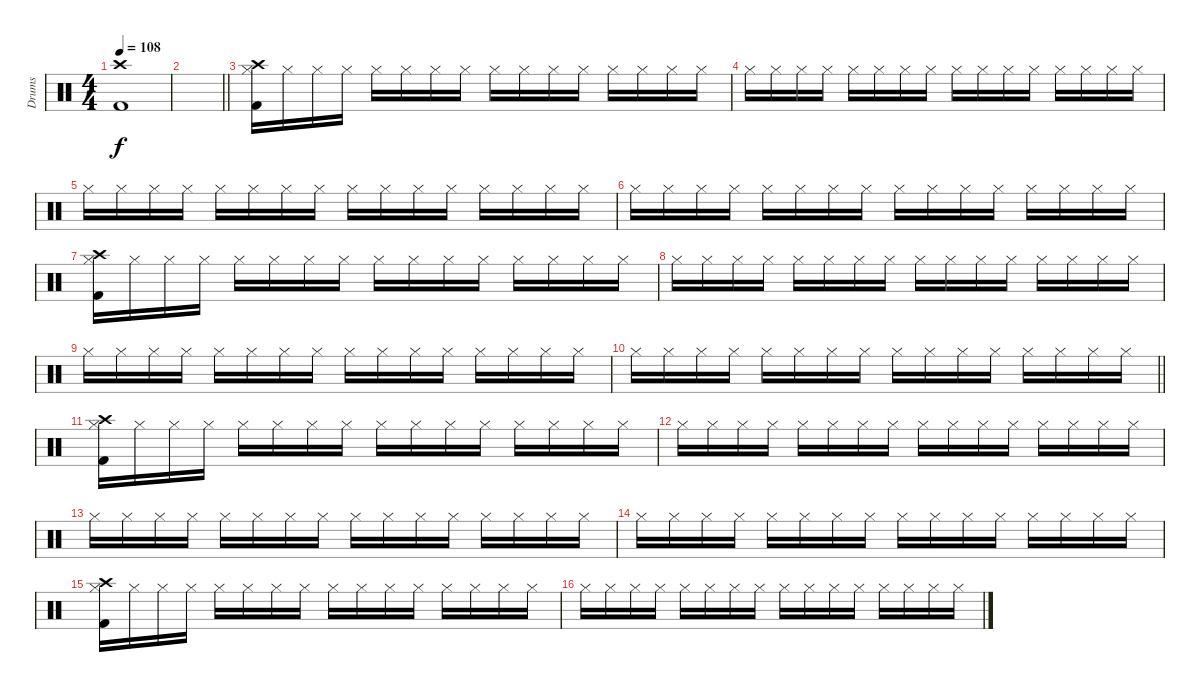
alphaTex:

\track ("Drums" "Drums") {instrument percussion}
\staff {score}
\articulation defaults
\ts (4 4)
\section ("" "")
\tempo 108
\clef neutral
\ks c
("Crash high (hit)" "Kick (hit) 2").1{dy f} |
\barLineRight lightlight
|
\section ("" "")
("Crash high (hit)" "Hi-Hat (closed)" "Kick (hit) 2").16 "Hi-Hat (closed)".16 "Hi-Hat (closed)".16 "Hi-Hat (closed)".16 "Hi-Hat (closed)".16 "Hi-Hat (closed)".16 "Hi-Hat (closed)".16 "Hi-Hat (closed)".16 "Hi-Hat (closed)".16 "Hi-Hat (closed)".16 "Hi-Hat (closed)".16 "Hi-Hat (closed)".16 "Hi-Hat (closed)".16 "Hi-Hat (closed)".16 "Hi-Hat (closed)".16 "Hi-Hat (closed)".16 |
"Hi-Hat (closed)".16 "Hi-Hat (closed)".16 "Hi-Hat (closed)".16 "Hi-Hat (closed)".16 "Hi-Hat (closed)".16 "Hi-Hat (closed)".16 "Hi-Hat (closed)".16 "Hi-Hat (closed)".16 "Hi-Hat (closed)".16 "Hi-Hat (closed)".16 "Hi-Hat (closed)".16 "Hi-Hat (closed)".16 "Hi-Hat (closed)".16 "Hi-Hat (closed)".16 "Hi-Hat (closed)".16 "Hi-Hat (closed)".16 |
"Hi-Hat (closed)".16 "Hi-Hat (closed)".16 "Hi-Hat (closed)".16 "Hi-Hat (closed)".16 "Hi-Hat (closed)".16 "Hi-Hat (closed)".16 "Hi-Hat (closed)".16 "Hi-Hat (closed)".16 "Hi-Hat (closed)".16 "Hi-Hat (closed)".16 "Hi-Hat (closed)".16 "Hi-Hat (closed)".16 "Hi-Hat (closed)".16 "Hi-Hat (closed)".16 "Hi-Hat (closed)".16 "Hi-Hat (closed)".16 |
"Hi-Hat (closed)".16 "Hi-Hat (closed)".16 "Hi-Hat (closed)".16 "Hi-Hat (closed)".16 "Hi-Hat (closed)".16 "Hi-Hat (closed)".16 "Hi-Hat (closed)".16 "Hi-Hat (closed)".16 "Hi-Hat (closed)".16 "Hi-Hat (closed)".16 "Hi-Hat (closed)".16 "Hi-Hat (closed)".16 "Hi-Hat (closed)".16 "Hi-Hat (closed)".16 "Hi-Hat (closed)".16 "Hi-Hat (closed)".16 |
("Crash high (hit)" "Hi-Hat (closed)" "Kick (hit) 2").16 "Hi-Hat (closed)".16 "Hi-Hat (closed)".16 "Hi-Hat (closed)".16 "Hi-Hat (closed)".16 "Hi-Hat (closed)".16 "Hi-Hat (closed)".16 "Hi-Hat (closed)".16 "Hi-Hat (closed)".16 "Hi-Hat (closed)".16 "Hi-Hat (closed)".16 "Hi-Hat (closed)".16 "Hi-Hat (closed)".16 "Hi-Hat (closed)".16 "Hi-Hat (closed)".16 "Hi-Hat (closed)".16 |
"Hi-Hat (closed)".16 "Hi-Hat (closed)".16 "Hi-Hat (closed)".16 "Hi-Hat (closed)".16 "Hi-Hat (closed)".16 "Hi-Hat (closed)".16 "Hi-Hat (closed)".16 "Hi-Hat (closed)".16 "Hi-Hat (closed)".16 "Hi-Hat (closed)".16 "Hi-Hat (closed)".16 "Hi-Hat (closed)".16 "Hi-Hat (closed)".16 "Hi-Hat (closed)".16 "Hi-Hat (closed)".16 "Hi-Hat (closed)".16 |
"Hi-Hat (closed)".16 "Hi-Hat (closed)".16 "Hi-Hat (closed)".16 "Hi-Hat (closed)".16 "Hi-Hat (closed)".16 "Hi-Hat (closed)".16 "Hi-Hat (closed)".16 "Hi-Hat (closed)".16 "Hi-Hat (closed)".16 "Hi-Hat (closed)".16 "Hi-Hat (closed)".16 "Hi-Hat (closed)".16 "Hi-Hat (closed)".16 "Hi-Hat (closed)".16 "Hi-Hat (closed)".16 "Hi-Hat (closed)".16 |
\barLineRight lightlight "Hi-Hat (closed)".16 "Hi-Hat (closed)".16 "Hi-Hat (closed)".16 "Hi-Hat (closed)".16 "Hi-Hat (closed)".16 "Hi-Hat (closed)".16 "Hi-Hat (closed)".16 "Hi-Hat (closed)".16 "Hi-Hat (closed)".16 "Hi-Hat (closed)".16 "Hi-Hat (closed)".16 "Hi-Hat (closed)".16 "Hi-Hat (closed)".16 "Hi-Hat (closed)".16 "Hi-Hat (closed)".16 "Hi-Hat (closed)".16
|
\section ("" "")
("Crash high (hit)" "Hi-Hat (closed)" "Kick (hit) 2").16 "Hi-Hat (closed)".16 "Hi-Hat (closed)".16 "Hi-Hat (closed)".16 "Hi-Hat (closed)".16 "Hi-Hat (closed)".16 "Hi-Hat (closed)".16 "Hi-Hat (closed)".16 "Hi-Hat (closed)".16 "Hi-Hat (closed)".16 "Hi-Hat (closed)".16 "Hi-Hat (closed)".16 "Hi-Hat (closed)".16 "Hi-Hat (closed)".16 "Hi-Hat (closed)".16 "Hi-Hat (closed)".16 |
"Hi-Hat (closed)".16 "Hi-Hat (closed)".16 "Hi-Hat (closed)".16 "Hi-Hat (closed)".16 "Hi-Hat (closed)".16 "Hi-Hat (closed)".16 "Hi-Hat (closed)".16 "Hi-Hat (closed)".16 "Hi-Hat (closed)".16 "Hi-Hat (closed)".16 "Hi-Hat (closed)".16 "Hi-Hat (closed)".16 "Hi-Hat (closed)".16 "Hi-Hat (closed)".16 "Hi-Hat (closed)".16 "Hi-Hat (closed)".16 |
"Hi-Hat (closed)".16 "Hi-Hat (closed)".16 "Hi-Hat (closed)".16 "Hi-Hat (closed)".16 "Hi-Hat (closed)".16 "Hi-Hat (closed)".16 "Hi-Hat (closed)".16 "Hi-Hat (closed)".16 "Hi-Hat (closed)".16 "Hi-Hat (closed)".16 "Hi-Hat (closed)".16 "Hi-Hat (closed)".16 "Hi-Hat (closed)".16 "Hi-Hat (closed)".16 "Hi-Hat (closed)".16 "Hi-Hat (closed)".16 |
"Hi-Hat (closed)".16 "Hi-Hat (closed)".16 "Hi-Hat (closed)".16 "Hi-Hat (closed)".16 "Hi-Hat (closed)".16 "Hi-Hat (closed)".16 "Hi-Hat (closed)".16 "Hi-Hat (closed)".16 "Hi-Hat (closed)".16 "Hi-Hat (closed)".16 "Hi-Hat (closed)".16 "Hi-Hat (closed)".16 "Hi-Hat (closed)".16 "Hi-Hat (closed)".16 "Hi-Hat (closed)".16 "Hi-Hat (closed)".16 |
("Crash high (hit)" "Hi-Hat (closed)" "Kick (hit) 2").16 "Hi-Hat (closed)".16 "Hi-Hat (closed)".16 "Hi-Hat (closed)".16 "Hi-Hat (closed)".16 "Hi-Hat (closed)".16 "Hi-Hat (closed)".16 "Hi-Hat (closed)".16 "Hi-Hat (closed)".16 "Hi-Hat (closed)".16 "Hi-Hat (closed)".16 "Hi-Hat (closed)".16 "Hi-Hat (closed)".16 "Hi-Hat (closed)".16 "Hi-Hat (closed)".16 "Hi-Hat (closed)".16 |
"Hi-Hat (closed)".16 "Hi-Hat (closed)".16 "Hi-Hat (closed)".16 "Hi-Hat (closed)".16 "Hi-Hat (closed)".16 "Hi-Hat (closed)".16 "Hi-Hat (closed)".16 "Hi-Hat (closed)".16 "Hi-Hat (closed)".16 "Hi-Hat (closed)".16 "Hi-Hat (closed)".16 "Hi-Hat (closed)".16 "Hi-Hat (closed)".16 "Hi-Hat (closed)".16 "Hi-Hat (closed)".16 "Hi-Hat (closed)".16
